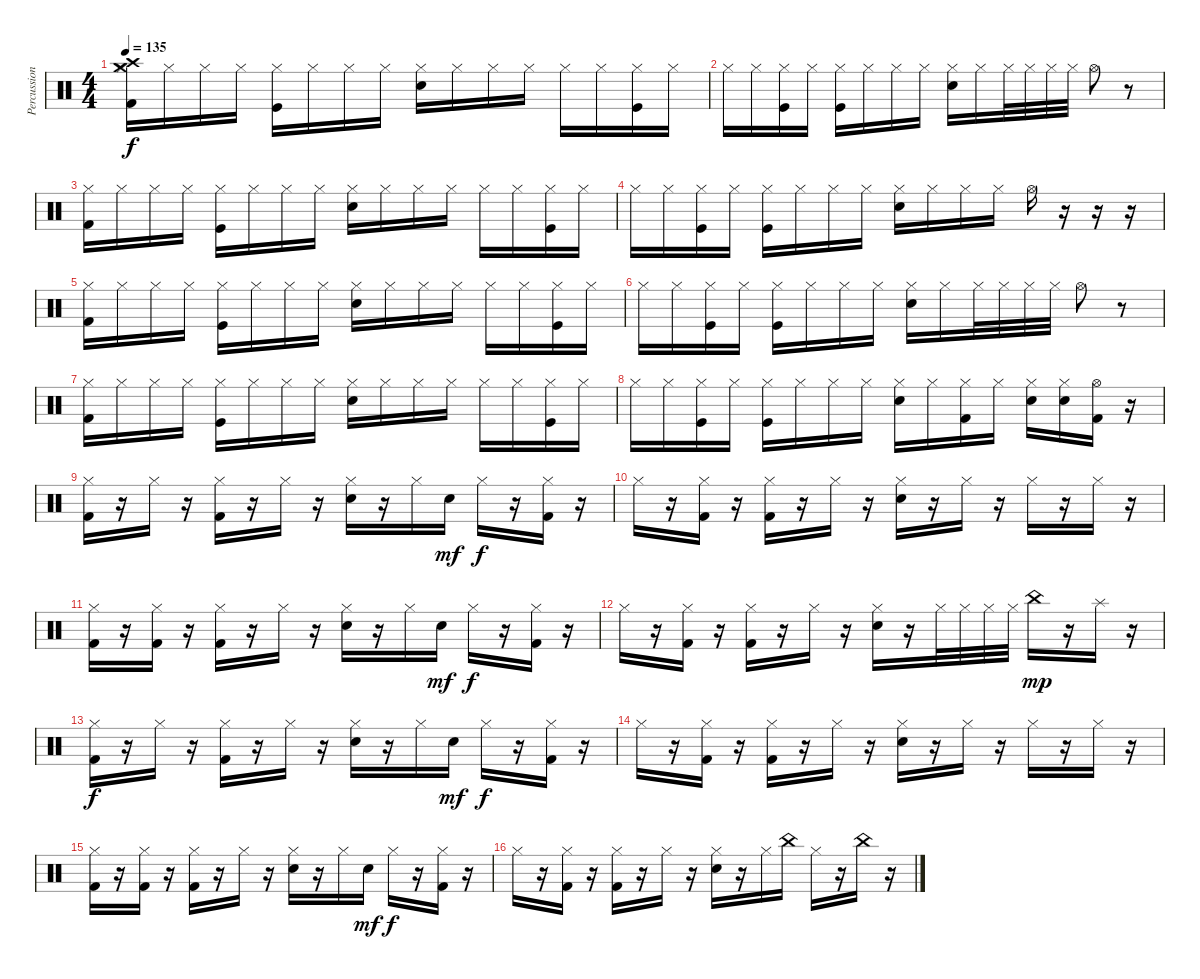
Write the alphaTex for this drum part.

\track ("Percussion" "Percussion") {instrument percussion}
\staff {score}
\articulation defaults
\ts (4 4)
\tempo 135
\clef neutral
\ks c
("Hi-Hat (closed)" "Crash high (hit)" "Crash medium (hit)" "Kick (hit) 2").16{dy f} "Hi-Hat (closed)".16 "Hi-Hat (closed)".16 "Hi-Hat (closed)".16 ("Hi-Hat (closed)" "Kick (hit)").16 "Hi-Hat (closed)".16 "Hi-Hat (closed)".16 "Hi-Hat (closed)".16 ("Hi-Hat (closed)" "Electric Snare (hit)").16 "Hi-Hat (closed)".16 "Hi-Hat (closed)".16 "Hi-Hat (closed)".16 "Hi-Hat (closed)".16 "Hi-Hat (closed)".16 ("Hi-Hat (closed)" "Kick (hit)").16 "Hi-Hat (closed)".16 |
"Hi-Hat (closed)".16 "Hi-Hat (closed)".16 ("Hi-Hat (closed)" "Kick (hit)").16 "Hi-Hat (closed)".16 ("Hi-Hat (closed)" "Kick (hit)").16 "Hi-Hat (closed)".16 "Hi-Hat (closed)".16 "Hi-Hat (closed)".16 ("Hi-Hat (closed)" "Electric Snare (hit)").16 "Hi-Hat (closed)".16 "Hi-Hat (closed)".32 "Hi-Hat (closed)".32 "Hi-Hat (closed)".32 "Hi-Hat (closed)".32 "Hi-Hat (open)".8 r.8 |
("Hi-Hat (closed)" "Kick (hit) 2").16 "Hi-Hat (closed)".16 "Hi-Hat (closed)".16 "Hi-Hat (closed)".16 ("Hi-Hat (closed)" "Kick (hit)").16 "Hi-Hat (closed)".16 "Hi-Hat (closed)".16 "Hi-Hat (closed)".16 ("Hi-Hat (closed)" "Electric Snare (hit)").16 "Hi-Hat (closed)".16 "Hi-Hat (closed)".16 "Hi-Hat (closed)".16 "Hi-Hat (closed)".16 "Hi-Hat (closed)".16 ("Hi-Hat (closed)" "Kick (hit)").16 "Hi-Hat (closed)".16 |
"Hi-Hat (closed)".16 "Hi-Hat (closed)".16 ("Hi-Hat (closed)" "Kick (hit)").16 "Hi-Hat (closed)".16 ("Hi-Hat (closed)" "Kick (hit)").16 "Hi-Hat (closed)".16 "Hi-Hat (closed)".16 "Hi-Hat (closed)".16 ("Hi-Hat (closed)" "Electric Snare (hit)").16 "Hi-Hat (closed)".16 "Hi-Hat (closed)".16 "Hi-Hat (closed)".16 "Hi-Hat (open)".16 r.16 r.16 r.16 |
("Hi-Hat (closed)" "Kick (hit) 2").16 "Hi-Hat (closed)".16 "Hi-Hat (closed)".16 "Hi-Hat (closed)".16 ("Hi-Hat (closed)" "Kick (hit)").16 "Hi-Hat (closed)".16 "Hi-Hat (closed)".16 "Hi-Hat (closed)".16 ("Hi-Hat (closed)" "Electric Snare (hit)").16 "Hi-Hat (closed)".16 "Hi-Hat (closed)".16 "Hi-Hat (closed)".16 "Hi-Hat (closed)".16 "Hi-Hat (closed)".16 ("Hi-Hat (closed)" "Kick (hit)").16 "Hi-Hat (closed)".16 |
"Hi-Hat (closed)".16 "Hi-Hat (closed)".16 ("Hi-Hat (closed)" "Kick (hit)").16 "Hi-Hat (closed)".16 ("Hi-Hat (closed)" "Kick (hit)").16 "Hi-Hat (closed)".16 "Hi-Hat (closed)".16 "Hi-Hat (closed)".16 ("Hi-Hat (closed)" "Electric Snare (hit)").16 "Hi-Hat (closed)".16 "Hi-Hat (closed)".32 "Hi-Hat (closed)".32 "Hi-Hat (closed)".32 "Hi-Hat (closed)".32 "Hi-Hat (open)".8 r.8 |
("Hi-Hat (closed)" "Kick (hit) 2").16 "Hi-Hat (closed)".16 "Hi-Hat (closed)".16 "Hi-Hat (closed)".16 ("Hi-Hat (closed)" "Kick (hit)").16 "Hi-Hat (closed)".16 "Hi-Hat (closed)".16 "Hi-Hat (closed)".16 ("Hi-Hat (closed)" "Electric Snare (hit)").16 "Hi-Hat (closed)".16 "Hi-Hat (closed)".16 "Hi-Hat (closed)".16 "Hi-Hat (closed)".16 "Hi-Hat (closed)".16 ("Hi-Hat (closed)" "Kick (hit)").16 "Hi-Hat (closed)".16 |
"Hi-Hat (closed)".16 "Hi-Hat (closed)".16 ("Hi-Hat (closed)" "Kick (hit)").16 "Hi-Hat (closed)".16 ("Hi-Hat (closed)" "Kick (hit)").16 "Hi-Hat (closed)".16 "Hi-Hat (closed)".16 "Hi-Hat (closed)".16 ("Hi-Hat (closed)" "Electric Snare (hit)").16 "Hi-Hat (closed)".16 ("Hi-Hat (closed)" "Kick (hit) 2").16 "Hi-Hat (closed)".16 ("Hi-Hat (closed)" "Electric Snare (hit)").16 ("Hi-Hat (closed)" "Electric Snare (hit)").16 ("Hi-Hat (open)" "Kick (hit) 2").16 r.16 |
("Hi-Hat (closed)" "Kick (hit) 2").16 r.16 "Hi-Hat (closed)".16 r.16 ("Hi-Hat (closed)" "Kick (hit) 2").16 r.16 "Hi-Hat (closed)".16 r.16 ("Hi-Hat (closed)" "Electric Snare (hit)").16 r.16 "Hi-Hat (closed)".16 "Electric Snare (hit)".16{dy mf} "Hi-Hat (closed)".16{dy f} r.16 ("Hi-Hat (closed)" "Kick (hit) 2").16 r.16 |
"Hi-Hat (closed)".16 r.16 ("Hi-Hat (closed)" "Kick (hit) 2").16 r.16 ("Hi-Hat (closed)" "Kick (hit) 2").16 r.16 "Hi-Hat (closed)".16 r.16 ("Hi-Hat (closed)" "Electric Snare (hit)").16 r.16 "Hi-Hat (closed)".16 r.16 "Hi-Hat (closed)".16 r.16 "Hi-Hat (closed)".16 r.16 |
("Hi-Hat (closed)" "Kick (hit) 2").16 r.16 ("Hi-Hat (closed)" "Kick (hit) 2").16 r.16 ("Hi-Hat (closed)" "Kick (hit) 2").16 r.16 "Hi-Hat (closed)".16 r.16 ("Hi-Hat (closed)" "Electric Snare (hit)").16 r.16 "Hi-Hat (closed)".16 "Electric Snare (hit)".16{dy mf} "Hi-Hat (closed)".16{dy f} r.16 ("Hi-Hat (closed)" "Kick (hit) 2").16 r.16 |
"Hi-Hat (closed)".16 r.16 ("Hi-Hat (closed)" "Kick (hit) 2").16 r.16 ("Hi-Hat (closed)" "Kick (hit) 2").16 r.16 "Hi-Hat (closed)".16 r.16 ("Hi-Hat (closed)" "Electric Snare (hit)").16 r.16 "Hi-Hat (closed)".32 "Hi-Hat (closed)".32 "Hi-Hat (closed)".32 "Hi-Hat (closed)".32 "China (hit)".16{dy mp} r.16 "Splash (hit)".16 r.16 |
("Hi-Hat (closed)" "Kick (hit) 2").16{dy f} r.16 "Hi-Hat (closed)".16 r.16 ("Hi-Hat (closed)" "Kick (hit) 2").16 r.16 "Hi-Hat (closed)".16 r.16 ("Hi-Hat (closed)" "Electric Snare (hit)").16 r.16 "Hi-Hat (closed)".16 "Electric Snare (hit)".16{dy mf} "Hi-Hat (closed)".16{dy f} r.16 ("Hi-Hat (closed)" "Kick (hit) 2").16 r.16 |
"Hi-Hat (closed)".16 r.16 ("Hi-Hat (closed)" "Kick (hit) 2").16 r.16 ("Hi-Hat (closed)" "Kick (hit) 2").16 r.16 "Hi-Hat (closed)".16 r.16 ("Hi-Hat (closed)" "Electric Snare (hit)").16 r.16 "Hi-Hat (closed)".16 r.16 "Hi-Hat (closed)".16 r.16 "Hi-Hat (closed)".16 r.16 |
("Hi-Hat (closed)" "Kick (hit) 2").16 r.16 ("Hi-Hat (closed)" "Kick (hit) 2").16 r.16 ("Hi-Hat (closed)" "Kick (hit) 2").16 r.16 "Hi-Hat (closed)".16 r.16 ("Hi-Hat (closed)" "Electric Snare (hit)").16 r.16 "Hi-Hat (closed)".16 "Electric Snare (hit)".16{dy mf} "Hi-Hat (closed)".16{dy f} r.16 ("Hi-Hat (closed)" "Kick (hit) 2").16 r.16 |
"Hi-Hat (closed)".16 r.16 ("Hi-Hat (closed)" "Kick (hit) 2").16 r.16 ("Hi-Hat (closed)" "Kick (hit) 2").16 r.16 "Hi-Hat (closed)".16 r.16 ("Hi-Hat (closed)" "Electric Snare (hit)").16 r.16 "Hi-Hat (closed)".16 "China (hit)".16 "Hi-Hat (closed)".16 r.16 "China (hit)".16 r.16
